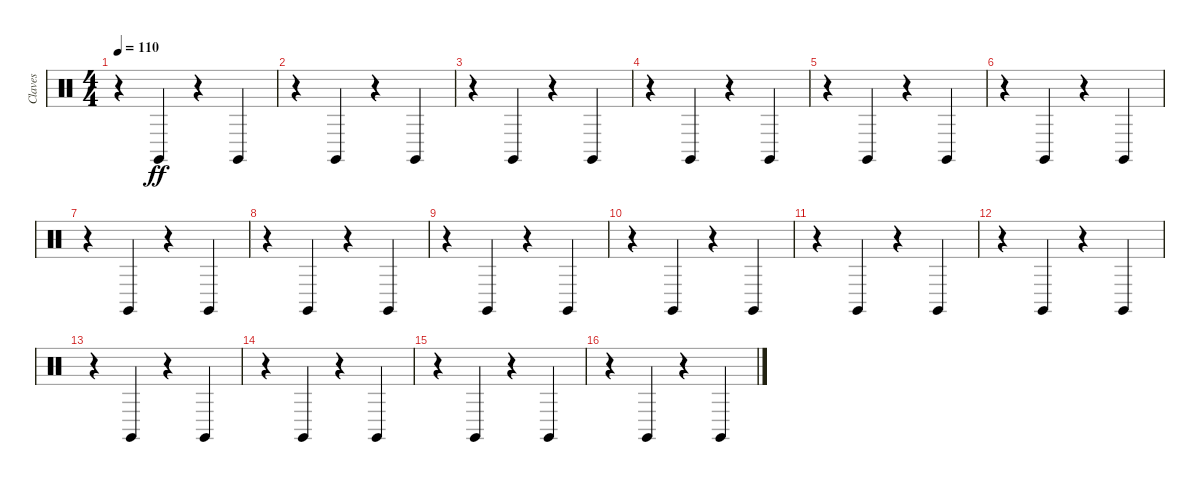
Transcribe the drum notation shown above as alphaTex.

\track ("Claves" "Claves") {instrument percussion}
\staff {score}
\articulation defaults
\ts (4 4)
\tempo 110
\clef neutral
\ks c
r.4{dy ff} "Claves (hit)".4 r.4 "Claves (hit)".4 |
r.4 "Claves (hit)".4 r.4 "Claves (hit)".4 |
r.4 "Claves (hit)".4 r.4 "Claves (hit)".4 |
r.4 "Claves (hit)".4 r.4 "Claves (hit)".4 |
r.4 "Claves (hit)".4 r.4 "Claves (hit)".4 |
r.4 "Claves (hit)".4 r.4 "Claves (hit)".4 |
r.4 "Claves (hit)".4 r.4 "Claves (hit)".4 |
r.4 "Claves (hit)".4 r.4 "Claves (hit)".4 |
r.4 "Claves (hit)".4 r.4 "Claves (hit)".4 |
r.4 "Claves (hit)".4 r.4 "Claves (hit)".4 |
r.4 "Claves (hit)".4 r.4 "Claves (hit)".4 |
r.4 "Claves (hit)".4 r.4 "Claves (hit)".4 |
r.4 "Claves (hit)".4 r.4 "Claves (hit)".4 |
r.4 "Claves (hit)".4 r.4 "Claves (hit)".4 |
r.4 "Claves (hit)".4 r.4 "Claves (hit)".4 |
r.4 "Claves (hit)".4 r.4 "Claves (hit)".4
